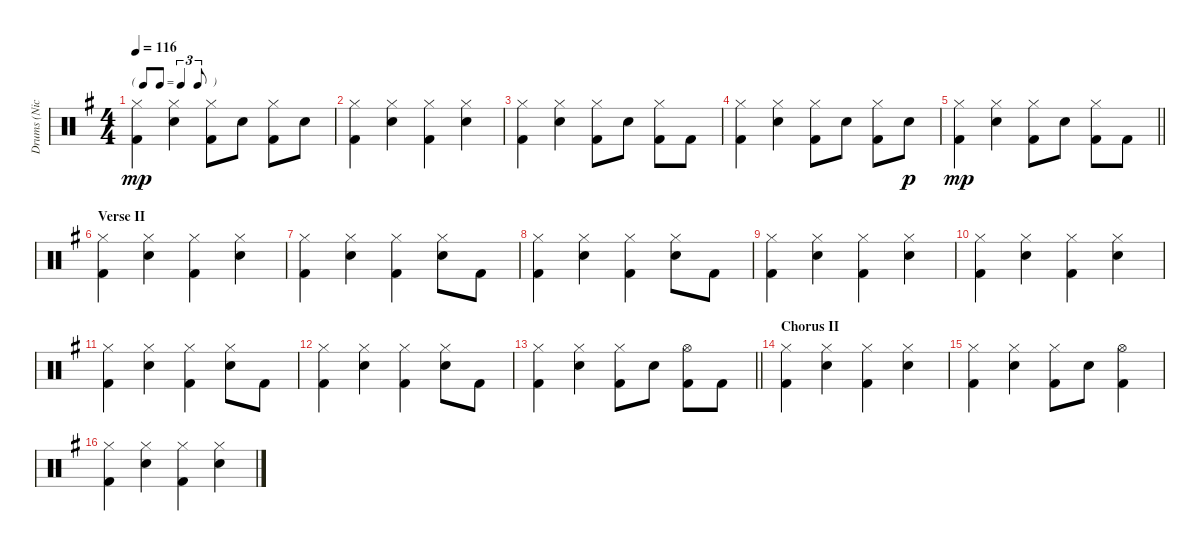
\track ("Drums (Nick Mason)" "Drums (Nic") {instrument percussion}
\staff {score}
\articulation defaults
\ts (4 4)
\tf triplet8th
\tempo 116
\clef neutral
\ks g
("Hi-Hat (closed)" "Kick (hit) 2").4{dy mp} ("Hi-Hat (closed)" "Snare (hit) 2").4 ("Hi-Hat (closed)" "Kick (hit) 2").8 "Snare (hit) 2".8 ("Hi-Hat (closed)" "Kick (hit) 2").8 "Snare (hit) 2".8 |
("Hi-Hat (closed)" "Kick (hit) 2").4 ("Hi-Hat (closed)" "Snare (hit) 2").4 ("Hi-Hat (closed)" "Kick (hit) 2").4 ("Hi-Hat (closed)" "Snare (hit) 2").4 |
("Hi-Hat (closed)" "Kick (hit) 2").4 ("Hi-Hat (closed)" "Snare (hit) 2").4 ("Hi-Hat (closed)" "Kick (hit) 2").8 "Snare (hit) 2".8 ("Hi-Hat (closed)" "Kick (hit) 2").8 "Kick (hit) 2".8 |
("Hi-Hat (closed)" "Kick (hit) 2").4 ("Hi-Hat (closed)" "Snare (hit) 2").4 ("Hi-Hat (closed)" "Kick (hit) 2").8 "Snare (hit) 2".8 ("Hi-Hat (closed)" "Kick (hit) 2").8 "Snare (hit) 2".8{dy p} |
\barLineRight lightlight
("Hi-Hat (closed)" "Kick (hit) 2").4{dy mp} ("Hi-Hat (closed)" "Snare (hit) 2").4 ("Hi-Hat (closed)" "Kick (hit) 2").8 "Snare (hit) 2".8 ("Hi-Hat (closed)" "Kick (hit) 2").8 "Kick (hit) 2".8 |
\section ("" "Verse II")
("Hi-Hat (closed)" "Kick (hit) 2").4 ("Hi-Hat (closed)" "Snare (hit) 2").4 ("Hi-Hat (closed)" "Kick (hit) 2").4 ("Hi-Hat (closed)" "Snare (hit) 2").4 |
("Hi-Hat (closed)" "Kick (hit) 2").4 ("Hi-Hat (closed)" "Snare (hit) 2").4 ("Hi-Hat (closed)" "Kick (hit) 2").4 ("Hi-Hat (closed)" "Snare (hit) 2").8 "Kick (hit) 2".8 |
("Hi-Hat (closed)" "Kick (hit) 2").4 ("Hi-Hat (closed)" "Snare (hit) 2").4 ("Hi-Hat (closed)" "Kick (hit) 2").4 ("Hi-Hat (closed)" "Snare (hit) 2").8 "Kick (hit) 2".8 |
("Hi-Hat (closed)" "Kick (hit) 2").4 ("Hi-Hat (closed)" "Snare (hit) 2").4 ("Hi-Hat (closed)" "Kick (hit) 2").4 ("Hi-Hat (closed)" "Snare (hit) 2").4 |
("Hi-Hat (closed)" "Kick (hit) 2").4 ("Hi-Hat (closed)" "Snare (hit) 2").4 ("Hi-Hat (closed)" "Kick (hit) 2").4 ("Hi-Hat (closed)" "Snare (hit) 2").4 |
("Hi-Hat (closed)" "Kick (hit) 2").4 ("Hi-Hat (closed)" "Snare (hit) 2").4 ("Hi-Hat (closed)" "Kick (hit) 2").4 ("Hi-Hat (closed)" "Snare (hit) 2").8 "Kick (hit) 2".8 |
("Hi-Hat (closed)" "Kick (hit) 2").4 ("Hi-Hat (closed)" "Snare (hit) 2").4 ("Hi-Hat (closed)" "Kick (hit) 2").4 ("Hi-Hat (closed)" "Snare (hit) 2").8 "Kick (hit) 2".8 |
\barLineRight lightlight
("Hi-Hat (closed)" "Kick (hit) 2").4 ("Hi-Hat (closed)" "Snare (hit) 2").4 ("Hi-Hat (closed)" "Kick (hit) 2").8 "Snare (hit) 2".8 ("Hi-Hat (open)" "Kick (hit) 2").8 "Kick (hit) 2".8 |
\section ("" "Chorus II")
("Hi-Hat (closed)" "Kick (hit) 2").4 ("Hi-Hat (closed)" "Snare (hit) 2").4 ("Hi-Hat (closed)" "Kick (hit) 2").4 ("Hi-Hat (closed)" "Snare (hit) 2").4 |
("Hi-Hat (closed)" "Kick (hit) 2").4 ("Hi-Hat (closed)" "Snare (hit) 2").4 ("Hi-Hat (closed)" "Kick (hit) 2").8 "Snare (hit) 2".8 ("Hi-Hat (open)" "Kick (hit) 2").4 |
("Hi-Hat (closed)" "Kick (hit) 2").4 ("Hi-Hat (closed)" "Snare (hit) 2").4 ("Hi-Hat (closed)" "Kick (hit) 2").4 ("Hi-Hat (closed)" "Snare (hit) 2").4
